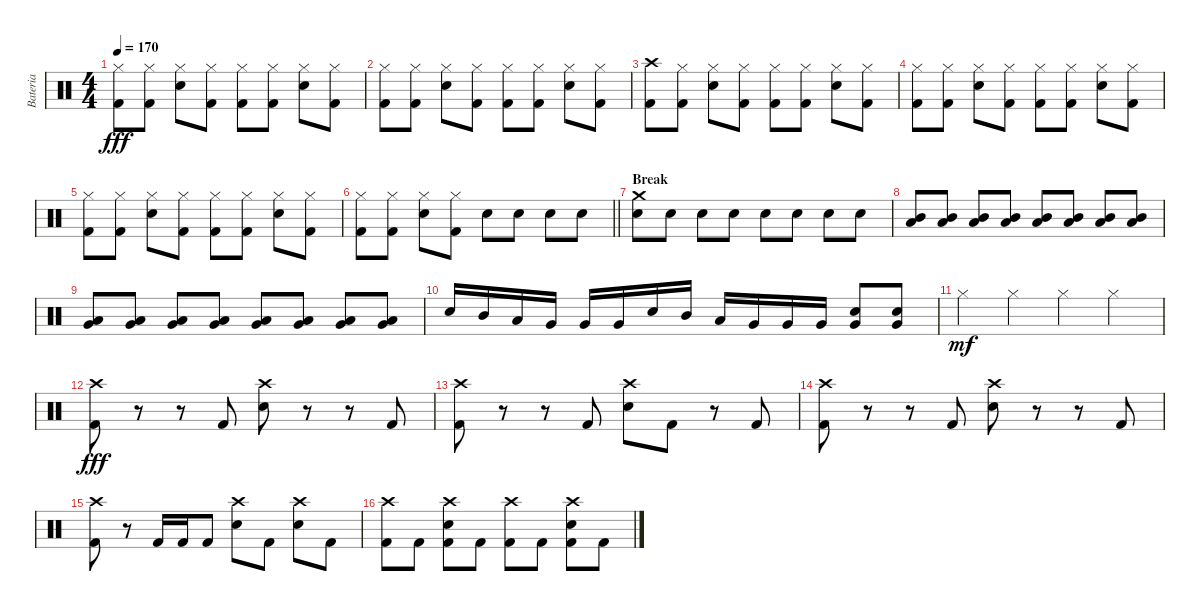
\track ("Bateria" "Bateria") {instrument percussion}
\staff {score}
\articulation defaults
\ts (4 4)
\tempo 170
\clef neutral
\ks c
("Hi-Hat (closed)" "Kick (hit) 2").8{dy fff} ("Hi-Hat (closed)" "Kick (hit) 2").8 ("Hi-Hat (closed)" "Electric Snare (hit)").8 ("Hi-Hat (closed)" "Kick (hit) 2").8 ("Hi-Hat (closed)" "Kick (hit) 2").8 ("Hi-Hat (closed)" "Kick (hit) 2").8 ("Hi-Hat (closed)" "Electric Snare (hit)").8 ("Hi-Hat (closed)" "Kick (hit) 2").8 |
("Hi-Hat (closed)" "Kick (hit) 2").8 ("Hi-Hat (closed)" "Kick (hit) 2").8 ("Hi-Hat (closed)" "Electric Snare (hit)").8 ("Hi-Hat (closed)" "Kick (hit) 2").8 ("Hi-Hat (closed)" "Kick (hit) 2").8 ("Hi-Hat (closed)" "Kick (hit) 2").8 ("Hi-Hat (closed)" "Electric Snare (hit)").8 ("Hi-Hat (closed)" "Kick (hit) 2").8 |
("Crash high (hit)" "Kick (hit) 2").8 ("Hi-Hat (closed)" "Kick (hit) 2").8 ("Hi-Hat (closed)" "Electric Snare (hit)").8 ("Hi-Hat (closed)" "Kick (hit) 2").8 ("Hi-Hat (closed)" "Kick (hit) 2").8 ("Hi-Hat (closed)" "Kick (hit) 2").8 ("Hi-Hat (closed)" "Electric Snare (hit)").8 ("Hi-Hat (closed)" "Kick (hit) 2").8 |
("Hi-Hat (closed)" "Kick (hit) 2").8 ("Hi-Hat (closed)" "Kick (hit) 2").8 ("Hi-Hat (closed)" "Electric Snare (hit)").8 ("Hi-Hat (closed)" "Kick (hit) 2").8 ("Hi-Hat (closed)" "Kick (hit) 2").8 ("Hi-Hat (closed)" "Kick (hit) 2").8 ("Hi-Hat (closed)" "Electric Snare (hit)").8 ("Hi-Hat (closed)" "Kick (hit) 2").8 |
("Hi-Hat (closed)" "Kick (hit) 2").8 ("Hi-Hat (closed)" "Kick (hit) 2").8 ("Hi-Hat (closed)" "Electric Snare (hit)").8 ("Hi-Hat (closed)" "Kick (hit) 2").8 ("Hi-Hat (closed)" "Kick (hit) 2").8 ("Hi-Hat (closed)" "Kick (hit) 2").8 ("Hi-Hat (closed)" "Electric Snare (hit)").8 ("Hi-Hat (closed)" "Kick (hit) 2").8 |
\barLineRight lightlight
("Hi-Hat (closed)" "Kick (hit) 2").8 ("Hi-Hat (closed)" "Kick (hit) 2").8 ("Hi-Hat (closed)" "Electric Snare (hit)").8 ("Hi-Hat (closed)" "Kick (hit) 2").8 "Electric Snare (hit)".8 "Electric Snare (hit)".8 "Electric Snare (hit)".8 "Electric Snare (hit)".8 |
\section ("" "Break")
("Crash medium (hit)" "Electric Snare (hit)").8 "Electric Snare (hit)".8 "Electric Snare (hit)".8 "Electric Snare (hit)".8 "Electric Snare (hit)".8 "Electric Snare (hit)".8 "Electric Snare (hit)".8 "Electric Snare (hit)".8 |
("Mid Tom (hit)" "Low Tom (hit)").8 ("Mid Tom (hit)" "Low Tom (hit)").8 ("Mid Tom (hit)" "Low Tom (hit)").8 ("Mid Tom (hit)" "Low Tom (hit)").8 ("Mid Tom (hit)" "Low Tom (hit)").8 ("Mid Tom (hit)" "Low Tom (hit)").8 ("Mid Tom (hit)" "Low Tom (hit)").8 ("Mid Tom (hit)" "Low Tom (hit)").8 |
("Low Tom (hit)" "Very Low Tom (hit)").8 ("Low Tom (hit)" "Very Low Tom (hit)").8 ("Low Tom (hit)" "Very Low Tom (hit)").8 ("Low Tom (hit)" "Very Low Tom (hit)").8 ("Low Tom (hit)" "Very Low Tom (hit)").8 ("Low Tom (hit)" "Very Low Tom (hit)").8 ("Low Tom (hit)" "Very Low Tom (hit)").8 ("Low Tom (hit)" "Very Low Tom (hit)").8 |
"Electric Snare (hit)".16 "Mid Tom (hit)".16 "Low Tom (hit)".16 "Very Low Tom (hit)".16 "Very Low Tom (hit)".16 "Very Low Tom (hit)".16 "Electric Snare (hit)".16 "Mid Tom (hit)".16 "Low Tom (hit)".16 "Very Low Tom (hit)".16 "Very Low Tom (hit)".16 "Very Low Tom (hit)".16 ("Very Low Tom (hit)" "Electric Snare (hit)").8 ("Very Low Tom (hit)" "Electric Snare (hit)").8 |
"Hi-Hat (closed)".4{dy mf} "Hi-Hat (closed)".4 "Hi-Hat (closed)".4 "Hi-Hat (closed)".4 |
("Crash high (hit)" "Kick (hit) 2").8{dy fff} r.8 r.8 "Kick (hit) 2".8 ("Crash high (hit)" "Electric Snare (hit)").8 r.8 r.8 "Kick (hit) 2".8 |
("Crash high (hit)" "Kick (hit) 2").8 r.8 r.8 "Kick (hit) 2".8 ("Crash high (hit)" "Electric Snare (hit)").8 "Kick (hit) 2".8 r.8 "Kick (hit) 2".8 |
("Crash high (hit)" "Kick (hit) 2").8 r.8 r.8 "Kick (hit) 2".8 ("Crash high (hit)" "Electric Snare (hit)").8 r.8 r.8 "Kick (hit) 2".8 |
("Crash high (hit)" "Kick (hit) 2").8 r.8 "Kick (hit) 2".16 "Kick (hit) 2".16 "Kick (hit) 2".8 ("Crash high (hit)" "Electric Snare (hit)").8 "Kick (hit) 2".8 ("Crash high (hit)" "Electric Snare (hit)").8 "Kick (hit) 2".8 |
("Crash high (hit)" "Kick (hit) 2").8 "Kick (hit) 2".8 ("Crash high (hit)" "Electric Snare (hit)" "Kick (hit) 2").8 "Kick (hit) 2".8 ("Crash high (hit)" "Kick (hit) 2").8 "Kick (hit) 2".8 ("Crash high (hit)" "Electric Snare (hit)" "Kick (hit) 2").8 "Kick (hit) 2".8
